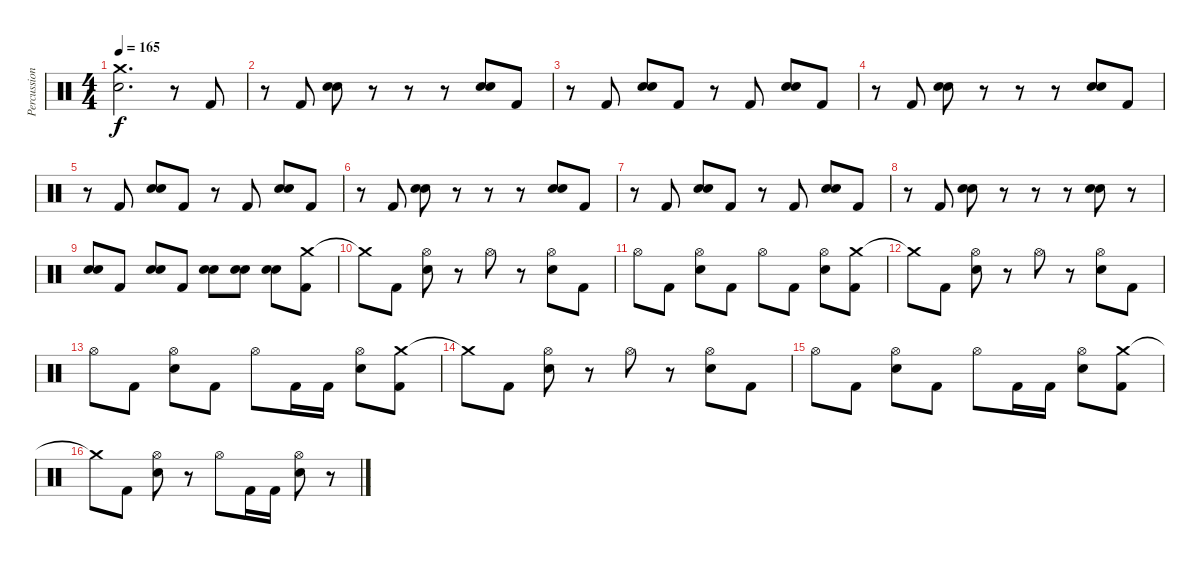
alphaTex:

\track ("Percussion" "Percussion") {instrument percussion}
\staff {score}
\articulation defaults
\ts (4 4)
\tempo 165
\clef neutral
\ks c
("Crash medium (hit)" "Electric Snare (hit)").2{d dy f} r.8 "Kick (hit) 2".8 |
r.8 "Kick (hit) 2".8 ("Electric Snare (hit)" "Electric Snare (hit)").8 r.8 r.8 r.8 ("Electric Snare (hit)" "Electric Snare (hit)").8 "Kick (hit) 2".8 |
r.8 "Kick (hit) 2".8 ("Electric Snare (hit)" "Electric Snare (hit)").8 "Kick (hit) 2".8 r.8 "Kick (hit) 2".8 ("Electric Snare (hit)" "Electric Snare (hit)").8 "Kick (hit) 2".8 |
r.8 "Kick (hit) 2".8 ("Electric Snare (hit)" "Electric Snare (hit)").8 r.8 r.8 r.8 ("Electric Snare (hit)" "Electric Snare (hit)").8 "Kick (hit) 2".8 |
r.8 "Kick (hit) 2".8 ("Electric Snare (hit)" "Electric Snare (hit)").8 "Kick (hit) 2".8 r.8 "Kick (hit) 2".8 ("Electric Snare (hit)" "Electric Snare (hit)").8 "Kick (hit) 2".8 |
r.8 "Kick (hit) 2".8 ("Electric Snare (hit)" "Electric Snare (hit)").8 r.8 r.8 r.8 ("Electric Snare (hit)" "Electric Snare (hit)").8 "Kick (hit) 2".8 |
r.8 "Kick (hit) 2".8 ("Electric Snare (hit)" "Electric Snare (hit)").8 "Kick (hit) 2".8 r.8 "Kick (hit) 2".8 ("Electric Snare (hit)" "Electric Snare (hit)").8 "Kick (hit) 2".8 |
r.8 "Kick (hit) 2".8 ("Electric Snare (hit)" "Electric Snare (hit)").8 r.8 r.8 r.8 ("Electric Snare (hit)" "Electric Snare (hit)").8 r.8 |
("Electric Snare (hit)" "Electric Snare (hit)").8 "Kick (hit) 2".8 ("Electric Snare (hit)" "Electric Snare (hit)").8 "Kick (hit) 2".8 ("Electric Snare (hit)" "Electric Snare (hit)").8 ("Electric Snare (hit)" "Electric Snare (hit)").8 ("Electric Snare (hit)" "Electric Snare (hit)").8 ("Crash medium (hit)" "Kick (hit) 2").8 |
"Crash medium (hit)"{t}.8 "Kick (hit) 2".8 ("Hi-Hat (open)" "Electric Snare (hit)").8 r.8 "Hi-Hat (open)".8 r.8 ("Hi-Hat (open)" "Electric Snare (hit)").8 "Kick (hit) 2".8 |
"Hi-Hat (open)".8 "Kick (hit) 2".8 ("Hi-Hat (open)" "Electric Snare (hit)").8 "Kick (hit) 2".8 "Hi-Hat (open)".8 "Kick (hit) 2".8 ("Hi-Hat (open)" "Electric Snare (hit)").8 ("Crash medium (hit)" "Kick (hit) 2").8 |
"Crash medium (hit)"{t}.8 "Kick (hit) 2".8 ("Hi-Hat (open)" "Electric Snare (hit)").8 r.8 "Hi-Hat (open)".8 r.8 ("Hi-Hat (open)" "Electric Snare (hit)").8 "Kick (hit) 2".8 |
"Hi-Hat (open)".8 "Kick (hit) 2".8 ("Hi-Hat (open)" "Electric Snare (hit)").8 "Kick (hit) 2".8 "Hi-Hat (open)".8 "Kick (hit) 2".16 "Kick (hit) 2".16 ("Hi-Hat (open)" "Electric Snare (hit)").8 ("Crash medium (hit)" "Kick (hit) 2").8 |
"Crash medium (hit)"{t}.8 "Kick (hit) 2".8 ("Hi-Hat (open)" "Electric Snare (hit)").8 r.8 "Hi-Hat (open)".8 r.8 ("Hi-Hat (open)" "Electric Snare (hit)").8 "Kick (hit) 2".8 |
"Hi-Hat (open)".8 "Kick (hit) 2".8 ("Hi-Hat (open)" "Electric Snare (hit)").8 "Kick (hit) 2".8 "Hi-Hat (open)".8 "Kick (hit) 2".16 "Kick (hit) 2".16 ("Hi-Hat (open)" "Electric Snare (hit)").8 ("Crash medium (hit)" "Kick (hit) 2").8 |
"Crash medium (hit)"{t}.8 "Kick (hit) 2".8 ("Hi-Hat (open)" "Electric Snare (hit)").8 r.8 "Hi-Hat (open)".8 "Kick (hit) 2".16 "Kick (hit) 2".16 ("Hi-Hat (open)" "Electric Snare (hit)").8 r.8
